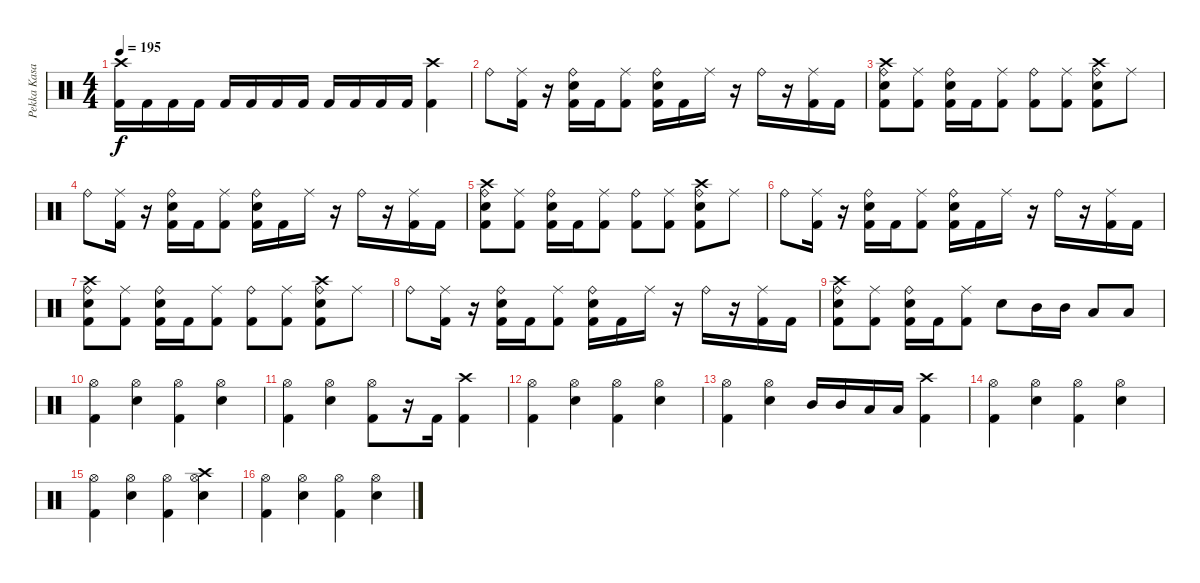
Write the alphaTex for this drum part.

\track ("Pekka Kasari" "Pekka Kasa") {instrument percussion}
\staff {score}
\articulation defaults
\ts (4 4)
\tempo 195
\clef neutral
\ks c
("Crash high (hit)" "Kick (hit) 2").16{dy f} "Kick (hit) 2".16 "Kick (hit) 2".16 "Kick (hit) 2".16 "Kick (hit) 2".16 "Kick (hit) 2".16 "Kick (hit) 2".16 "Kick (hit) 2".16 "Kick (hit) 2".16 "Kick (hit) 2".16 "Kick (hit) 2".16 "Kick (hit) 2".16 ("Crash high (hit)" "Kick (hit) 2").4 |
"Ride (bell)".8 ("Ride (middle)" "Kick (hit) 2").16 r.16 ("Snare (hit) 2" "Ride (bell)" "Kick (hit) 2").16 "Kick (hit) 2".16 ("Ride (middle)" "Kick (hit) 2").8 ("Snare (hit) 2" "Ride (bell)" "Kick (hit) 2").16 "Kick (hit) 2".16 "Ride (middle)".16 r.16 "Ride (bell)".16 r.16 ("Ride (middle)" "Kick (hit) 2").16 "Kick (hit) 2".16 |
("Crash high (hit)" "Snare (hit) 2" "Ride (bell)" "Kick (hit) 2").8 ("Kick (hit) 2" "Ride (middle)").8 ("Snare (hit) 2" "Ride (bell)" "Kick (hit) 2").16 "Kick (hit) 2".16 ("Ride (middle)" "Kick (hit) 2").8 ("Ride (bell)" "Kick (hit) 2").8 ("Ride (middle)" "Kick (hit) 2").8 ("Snare (hit) 2" "Ride (bell)" "Kick (hit) 2" "Crash high (hit)").8 "Ride (middle)".8 |
"Ride (bell)".8 ("Ride (middle)" "Kick (hit) 2").16 r.16 ("Snare (hit) 2" "Ride (bell)" "Kick (hit) 2").16 "Kick (hit) 2".16 ("Ride (middle)" "Kick (hit) 2").8 ("Snare (hit) 2" "Ride (bell)" "Kick (hit) 2").16 "Kick (hit) 2".16 "Ride (middle)".16 r.16 "Ride (bell)".16 r.16 ("Ride (middle)" "Kick (hit) 2").16 "Kick (hit) 2".16 |
("Snare (hit) 2" "Ride (bell)" "Kick (hit) 2" "Crash high (hit)").8 ("Kick (hit) 2" "Ride (middle)").8 ("Snare (hit) 2" "Ride (bell)" "Kick (hit) 2").16 "Kick (hit) 2".16 ("Ride (middle)" "Kick (hit) 2").8 ("Ride (bell)" "Kick (hit) 2").8 ("Ride (middle)" "Kick (hit) 2").8 ("Snare (hit) 2" "Ride (bell)" "Kick (hit) 2" "Crash high (hit)").8 "Ride (middle)".8 |
"Ride (bell)".8 ("Ride (middle)" "Kick (hit) 2").16 r.16 ("Snare (hit) 2" "Ride (bell)" "Kick (hit) 2").16 "Kick (hit) 2".16 ("Ride (middle)" "Kick (hit) 2").8 ("Snare (hit) 2" "Ride (bell)" "Kick (hit) 2").16 "Kick (hit) 2".16 "Ride (middle)".16 r.16 "Ride (bell)".16 r.16 ("Ride (middle)" "Kick (hit) 2").16 "Kick (hit) 2".16 |
("Snare (hit) 2" "Ride (bell)" "Kick (hit) 2" "Crash high (hit)").8 ("Kick (hit) 2" "Ride (middle)").8 ("Snare (hit) 2" "Ride (bell)" "Kick (hit) 2").16 "Kick (hit) 2".16 ("Ride (middle)" "Kick (hit) 2").8 ("Ride (bell)" "Kick (hit) 2").8 ("Ride (middle)" "Kick (hit) 2").8 ("Snare (hit) 2" "Ride (bell)" "Kick (hit) 2" "Crash high (hit)").8 "Ride (middle)".8 |
"Ride (bell)".8 ("Ride (middle)" "Kick (hit) 2").16 r.16 ("Snare (hit) 2" "Ride (bell)" "Kick (hit) 2").16 "Kick (hit) 2".16 ("Ride (middle)" "Kick (hit) 2").8 ("Snare (hit) 2" "Ride (bell)" "Kick (hit) 2").16 "Kick (hit) 2".16 "Ride (middle)".16 r.16 "Ride (bell)".16 r.16 ("Ride (middle)" "Kick (hit) 2").16 "Kick (hit) 2".16 |
("Snare (hit) 2" "Ride (bell)" "Kick (hit) 2" "Crash high (hit)").8 ("Kick (hit) 2" "Ride (middle)").8 ("Snare (hit) 2" "Ride (bell)" "Kick (hit) 2").16 "Kick (hit) 2".16 ("Ride (middle)" "Kick (hit) 2").8 "Snare (hit) 2".8 "Mid Tom (hit)".16 "Mid Tom (hit)".16 "Low Tom (hit)".8 "Low Floor Tom (hit)".8 |
("Kick (hit) 2" "Hi-Hat (open)").4 ("Hi-Hat (open)" "Snare (hit) 2").4 ("Hi-Hat (open)" "Kick (hit) 2").4 ("Hi-Hat (open)" "Snare (hit) 2").4 |
("Kick (hit) 2" "Hi-Hat (open)").4 ("Hi-Hat (open)" "Snare (hit) 2").4 ("Hi-Hat (open)" "Kick (hit) 2").8 r.16 "Kick (hit) 2".16 ("Crash high (hit)" "Kick (hit) 2").4 |
("Kick (hit) 2" "Hi-Hat (open)").4 ("Hi-Hat (open)" "Snare (hit) 2").4 ("Hi-Hat (open)" "Kick (hit) 2").4 ("Hi-Hat (open)" "Snare (hit) 2").4 |
("Kick (hit) 2" "Hi-Hat (open)").4 ("Hi-Hat (open)" "Snare (hit) 2").4 "Mid Tom (hit)".16 "Mid Tom (hit)".16 "Low Tom (hit)".16 "Low Tom (hit)".16 ("Crash high (hit)" "Kick (hit) 2").4 |
("Kick (hit) 2" "Hi-Hat (open)").4 ("Hi-Hat (open)" "Snare (hit) 2").4 ("Hi-Hat (open)" "Kick (hit) 2").4 ("Hi-Hat (open)" "Snare (hit) 2").4 |
("Kick (hit) 2" "Hi-Hat (open)").4 ("Hi-Hat (open)" "Snare (hit) 2").4 ("Hi-Hat (open)" "Kick (hit) 2").4 ("Crash high (hit)" "Hi-Hat (open)" "Snare (hit) 2").4 |
("Kick (hit) 2" "Hi-Hat (open)").4 ("Hi-Hat (open)" "Snare (hit) 2").4 ("Hi-Hat (open)" "Kick (hit) 2").4 ("Hi-Hat (open)" "Snare (hit) 2").4
